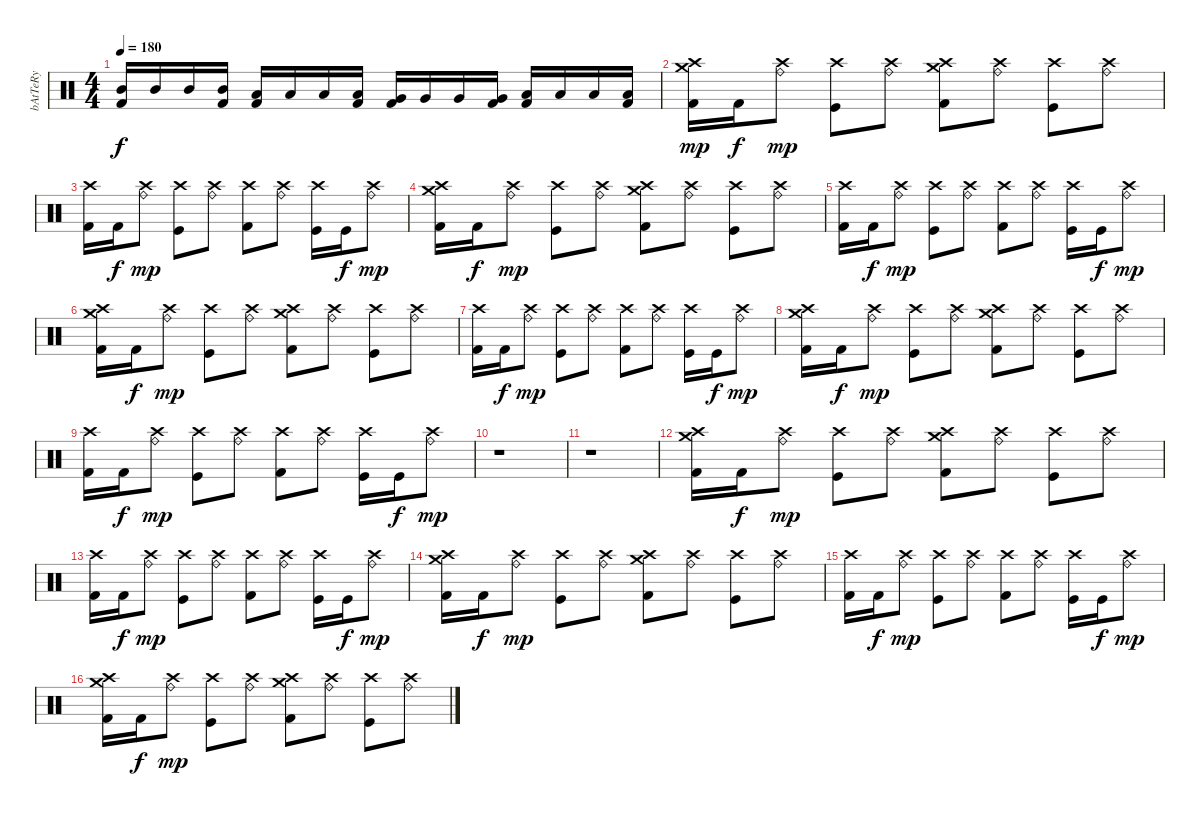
\track ("bAtTeRy" "bAtTeRy") {instrument percussion}
\staff {score}
\articulation defaults
\ts (4 4)
\tempo 180
\clef neutral
\ks c
("Mid Tom (hit)" "Kick (hit) 2").16{dy f} "Mid Tom (hit)".16 "Mid Tom (hit)".16 ("Mid Tom (hit)" "Kick (hit) 2").16 ("Low Tom (hit)" "Kick (hit) 2").16 "Low Tom (hit)".16 "Low Tom (hit)".16 ("Low Tom (hit)" "Kick (hit) 2").16 ("Very Low Tom (hit)" "Kick (hit) 2").16 "Very Low Tom (hit)".16 "Very Low Tom (hit)".16 ("Very Low Tom (hit)" "Kick (hit) 2").16 ("Low Floor Tom (hit)" "Kick (hit) 2").16 "Low Floor Tom (hit)".16 "Low Floor Tom (hit)".16 ("Low Floor Tom (hit)" "Kick (hit) 2").16 |
("Crash medium (hit)" "Crash high (hit)" "Kick (hit) 2").16{dy mp} "Kick (hit) 2".16{dy f} ("Crash high (hit)" "Ride (bell)").8{dy mp} ("Crash high (hit)" "Kick (hit)").8 ("Crash high (hit)" "Ride (bell)").8 ("Crash medium (hit)" "Crash high (hit)" "Kick (hit) 2").8 ("Crash high (hit)" "Ride (bell)").8 ("Crash high (hit)" "Kick (hit)").8 ("Crash high (hit)" "Ride (bell)").8 |
("Crash high (hit)" "Kick (hit) 2").16 "Kick (hit) 2".16{dy f} ("Crash high (hit)" "Ride (bell)").8{dy mp} ("Crash high (hit)" "Kick (hit)").8 ("Crash high (hit)" "Ride (bell)").8 ("Crash high (hit)" "Kick (hit) 2").8 ("Crash high (hit)" "Ride (bell)").8 ("Crash high (hit)" "Kick (hit)").16 "Kick (hit)".16{dy f} ("Crash high (hit)" "Ride (bell)").8{dy mp} |
("Crash medium (hit)" "Crash high (hit)" "Kick (hit) 2").16 "Kick (hit) 2".16{dy f} ("Crash high (hit)" "Ride (bell)").8{dy mp} ("Crash high (hit)" "Kick (hit)").8 ("Crash high (hit)" "Ride (bell)").8 ("Crash medium (hit)" "Crash high (hit)" "Kick (hit) 2").8 ("Crash high (hit)" "Ride (bell)").8 ("Crash high (hit)" "Kick (hit)").8 ("Crash high (hit)" "Ride (bell)").8 |
("Crash high (hit)" "Kick (hit) 2").16 "Kick (hit) 2".16{dy f} ("Crash high (hit)" "Ride (bell)").8{dy mp} ("Crash high (hit)" "Kick (hit)").8 ("Crash high (hit)" "Ride (bell)").8 ("Crash high (hit)" "Kick (hit) 2").8 ("Crash high (hit)" "Ride (bell)").8 ("Crash high (hit)" "Kick (hit)").16 "Kick (hit)".16{dy f} ("Crash high (hit)" "Ride (bell)").8{dy mp} |
("Crash medium (hit)" "Crash high (hit)" "Kick (hit) 2").16 "Kick (hit) 2".16{dy f} ("Crash high (hit)" "Ride (bell)").8{dy mp} ("Crash high (hit)" "Kick (hit)").8 ("Crash high (hit)" "Ride (bell)").8 ("Crash medium (hit)" "Crash high (hit)" "Kick (hit) 2").8 ("Crash high (hit)" "Ride (bell)").8 ("Crash high (hit)" "Kick (hit)").8 ("Crash high (hit)" "Ride (bell)").8 |
("Crash high (hit)" "Kick (hit) 2").16 "Kick (hit) 2".16{dy f} ("Crash high (hit)" "Ride (bell)").8{dy mp} ("Crash high (hit)" "Kick (hit)").8 ("Crash high (hit)" "Ride (bell)").8 ("Crash high (hit)" "Kick (hit) 2").8 ("Crash high (hit)" "Ride (bell)").8 ("Crash high (hit)" "Kick (hit)").16 "Kick (hit)".16{dy f} ("Crash high (hit)" "Ride (bell)").8{dy mp} |
("Crash medium (hit)" "Crash high (hit)" "Kick (hit) 2").16 "Kick (hit) 2".16{dy f} ("Crash high (hit)" "Ride (bell)").8{dy mp} ("Crash high (hit)" "Kick (hit)").8 ("Crash high (hit)" "Ride (bell)").8 ("Crash medium (hit)" "Crash high (hit)" "Kick (hit) 2").8 ("Crash high (hit)" "Ride (bell)").8 ("Crash high (hit)" "Kick (hit)").8 ("Crash high (hit)" "Ride (bell)").8 |
("Crash high (hit)" "Kick (hit) 2").16 "Kick (hit) 2".16{dy f} ("Crash high (hit)" "Ride (bell)").8{dy mp} ("Crash high (hit)" "Kick (hit)").8 ("Crash high (hit)" "Ride (bell)").8 ("Crash high (hit)" "Kick (hit) 2").8 ("Crash high (hit)" "Ride (bell)").8 ("Crash high (hit)" "Kick (hit)").16 "Kick (hit)".16{dy f} ("Crash high (hit)" "Ride (bell)").8{dy mp} |
r.1 |
r.1 |
("Crash medium (hit)" "Crash high (hit)" "Kick (hit) 2").16 "Kick (hit) 2".16{dy f} ("Crash high (hit)" "Ride (bell)").8{dy mp} ("Crash high (hit)" "Kick (hit)").8 ("Crash high (hit)" "Ride (bell)").8 ("Crash medium (hit)" "Crash high (hit)" "Kick (hit) 2").8 ("Crash high (hit)" "Ride (bell)").8 ("Crash high (hit)" "Kick (hit)").8 ("Crash high (hit)" "Ride (bell)").8 |
("Crash high (hit)" "Kick (hit) 2").16 "Kick (hit) 2".16{dy f} ("Crash high (hit)" "Ride (bell)").8{dy mp} ("Crash high (hit)" "Kick (hit)").8 ("Crash high (hit)" "Ride (bell)").8 ("Crash high (hit)" "Kick (hit) 2").8 ("Crash high (hit)" "Ride (bell)").8 ("Crash high (hit)" "Kick (hit)").16 "Kick (hit)".16{dy f} ("Crash high (hit)" "Ride (bell)").8{dy mp} |
("Crash medium (hit)" "Crash high (hit)" "Kick (hit) 2").16 "Kick (hit) 2".16{dy f} ("Crash high (hit)" "Ride (bell)").8{dy mp} ("Crash high (hit)" "Kick (hit)").8 ("Crash high (hit)" "Ride (bell)").8 ("Crash medium (hit)" "Crash high (hit)" "Kick (hit) 2").8 ("Crash high (hit)" "Ride (bell)").8 ("Crash high (hit)" "Kick (hit)").8 ("Crash high (hit)" "Ride (bell)").8 |
("Crash high (hit)" "Kick (hit) 2").16 "Kick (hit) 2".16{dy f} ("Crash high (hit)" "Ride (bell)").8{dy mp} ("Crash high (hit)" "Kick (hit)").8 ("Crash high (hit)" "Ride (bell)").8 ("Crash high (hit)" "Kick (hit) 2").8 ("Crash high (hit)" "Ride (bell)").8 ("Crash high (hit)" "Kick (hit)").16 "Kick (hit)".16{dy f} ("Crash high (hit)" "Ride (bell)").8{dy mp} |
("Crash medium (hit)" "Crash high (hit)" "Kick (hit) 2").16 "Kick (hit) 2".16{dy f} ("Crash high (hit)" "Ride (bell)").8{dy mp} ("Crash high (hit)" "Kick (hit)").8 ("Crash high (hit)" "Ride (bell)").8 ("Crash medium (hit)" "Crash high (hit)" "Kick (hit) 2").8 ("Crash high (hit)" "Ride (bell)").8 ("Crash high (hit)" "Kick (hit)").8 ("Crash high (hit)" "Ride (bell)").8
